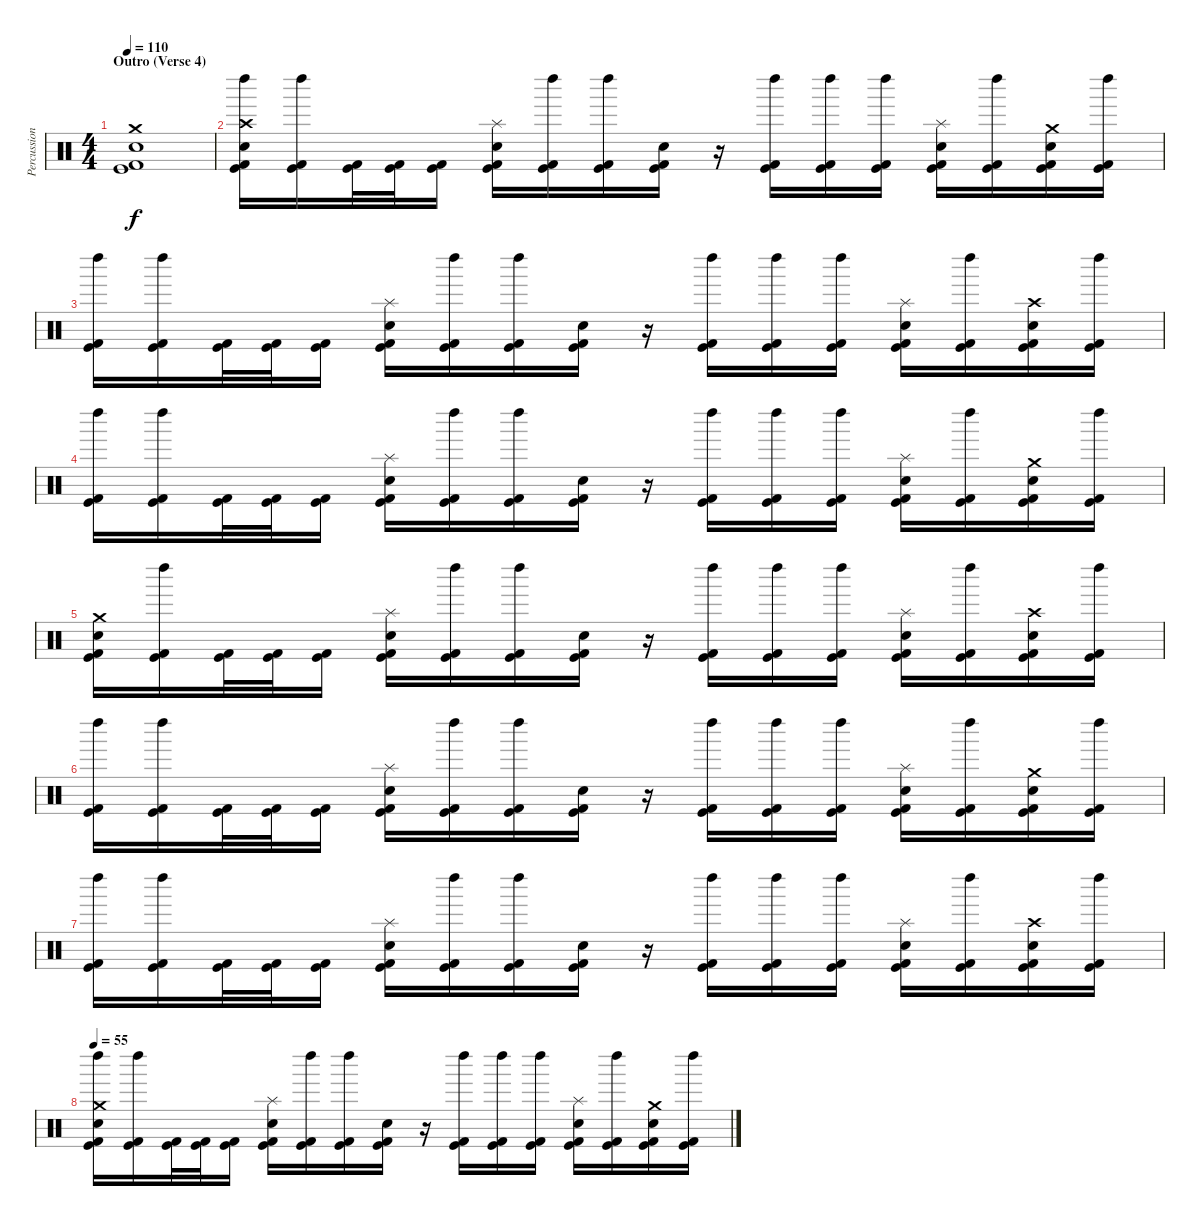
\track ("Percussions" "Percussion") {instrument percussion}
\staff {score}
\articulation defaults
\ts (4 4)
\section ("" "Outro (Verse 4)")
\tempo 110
\clef neutral
\ks c
("Kick (hit)" "Kick (hit) 2" "Electric Snare (hit)" "Crash medium (hit)").1{dy f} |
("Kick (hit)" "Kick (hit) 2" "Left Maraca (hit)" "Electric Snare (hit)" "Crash high (hit)").16 ("Kick (hit)" "Kick (hit) 2" "Left Maraca (hit)").16 ("Kick (hit)" "Kick (hit) 2").32 ("Kick (hit)" "Kick (hit) 2").32 ("Kick (hit)" "Kick (hit) 2").16 ("Kick (hit)" "Kick (hit) 2" "Electric Snare (hit)" "Splash (hit)").16 ("Kick (hit)" "Kick (hit) 2" "Left Maraca (hit)").16 ("Kick (hit)" "Kick (hit) 2" "Left Maraca (hit)").16 ("Kick (hit)" "Kick (hit) 2" "Electric Snare (hit)").16 r.16 ("Kick (hit)" "Kick (hit) 2" "Left Maraca (hit)").16 ("Kick (hit)" "Kick (hit) 2" "Left Maraca (hit)").16 ("Kick (hit)" "Kick (hit) 2" "Left Maraca (hit)").16 ("Kick (hit)" "Kick (hit) 2" "Electric Snare (hit)" "Splash (hit)").16 ("Kick (hit)" "Kick (hit) 2" "Left Maraca (hit)").16 ("Kick (hit)" "Kick (hit) 2" "Electric Snare (hit)" "Crash medium (hit)").16 ("Kick (hit)" "Kick (hit) 2" "Left Maraca (hit)").16 |
("Kick (hit)" "Kick (hit) 2" "Left Maraca (hit)").16 ("Kick (hit)" "Kick (hit) 2" "Left Maraca (hit)").16 ("Kick (hit)" "Kick (hit) 2").32 ("Kick (hit)" "Kick (hit) 2").32 ("Kick (hit)" "Kick (hit) 2").16 ("Kick (hit)" "Kick (hit) 2" "Electric Snare (hit)" "Splash (hit)").16 ("Kick (hit)" "Kick (hit) 2" "Left Maraca (hit)").16 ("Kick (hit)" "Kick (hit) 2" "Left Maraca (hit)").16 ("Kick (hit)" "Kick (hit) 2" "Electric Snare (hit)").16 r.16 ("Kick (hit)" "Kick (hit) 2" "Left Maraca (hit)").16 ("Kick (hit)" "Kick (hit) 2" "Left Maraca (hit)").16 ("Kick (hit)" "Kick (hit) 2" "Left Maraca (hit)").16 ("Kick (hit)" "Kick (hit) 2" "Electric Snare (hit)" "Splash (hit)").16 ("Kick (hit)" "Kick (hit) 2" "Left Maraca (hit)").16 ("Kick (hit)" "Kick (hit) 2" "Electric Snare (hit)" "Crash high (hit)").16 ("Kick (hit)" "Kick (hit) 2" "Left Maraca (hit)").16 |
("Kick (hit)" "Kick (hit) 2" "Left Maraca (hit)").16 ("Kick (hit)" "Kick (hit) 2" "Left Maraca (hit)").16 ("Kick (hit)" "Kick (hit) 2").32 ("Kick (hit)" "Kick (hit) 2").32 ("Kick (hit)" "Kick (hit) 2").16 ("Kick (hit)" "Kick (hit) 2" "Electric Snare (hit)" "Splash (hit)").16 ("Kick (hit)" "Kick (hit) 2" "Left Maraca (hit)").16 ("Kick (hit)" "Kick (hit) 2" "Left Maraca (hit)").16 ("Kick (hit)" "Kick (hit) 2" "Electric Snare (hit)").16 r.16 ("Kick (hit)" "Kick (hit) 2" "Left Maraca (hit)").16 ("Kick (hit)" "Kick (hit) 2" "Left Maraca (hit)").16 ("Kick (hit)" "Kick (hit) 2" "Left Maraca (hit)").16 ("Kick (hit)" "Kick (hit) 2" "Electric Snare (hit)" "Splash (hit)").16 ("Kick (hit)" "Kick (hit) 2" "Left Maraca (hit)").16 ("Kick (hit)" "Kick (hit) 2" "Electric Snare (hit)" "Crash medium (hit)").16 ("Kick (hit)" "Kick (hit) 2" "Left Maraca (hit)").16 |
("Kick (hit)" "Kick (hit) 2" "Electric Snare (hit)" "Crash medium (hit)").16 ("Kick (hit)" "Kick (hit) 2" "Left Maraca (hit)").16 ("Kick (hit)" "Kick (hit) 2").32 ("Kick (hit)" "Kick (hit) 2").32 ("Kick (hit)" "Kick (hit) 2").16 ("Kick (hit)" "Kick (hit) 2" "Electric Snare (hit)" "Splash (hit)").16 ("Kick (hit)" "Kick (hit) 2" "Left Maraca (hit)").16 ("Kick (hit)" "Kick (hit) 2" "Left Maraca (hit)").16 ("Kick (hit)" "Kick (hit) 2" "Electric Snare (hit)").16 r.16 ("Kick (hit)" "Kick (hit) 2" "Left Maraca (hit)").16 ("Kick (hit)" "Kick (hit) 2" "Left Maraca (hit)").16 ("Kick (hit)" "Kick (hit) 2" "Left Maraca (hit)").16 ("Kick (hit)" "Kick (hit) 2" "Electric Snare (hit)" "Splash (hit)").16 ("Kick (hit)" "Kick (hit) 2" "Left Maraca (hit)").16 ("Kick (hit)" "Kick (hit) 2" "Electric Snare (hit)" "Crash high (hit)").16 ("Kick (hit)" "Kick (hit) 2" "Left Maraca (hit)").16 |
("Kick (hit)" "Kick (hit) 2" "Left Maraca (hit)").16 ("Kick (hit)" "Kick (hit) 2" "Left Maraca (hit)").16 ("Kick (hit)" "Kick (hit) 2").32 ("Kick (hit)" "Kick (hit) 2").32 ("Kick (hit)" "Kick (hit) 2").16 ("Kick (hit)" "Kick (hit) 2" "Electric Snare (hit)" "Splash (hit)").16 ("Kick (hit)" "Kick (hit) 2" "Left Maraca (hit)").16 ("Kick (hit)" "Kick (hit) 2" "Left Maraca (hit)").16 ("Kick (hit)" "Kick (hit) 2" "Electric Snare (hit)").16 r.16 ("Kick (hit)" "Kick (hit) 2" "Left Maraca (hit)").16 ("Kick (hit)" "Kick (hit) 2" "Left Maraca (hit)").16 ("Kick (hit)" "Kick (hit) 2" "Left Maraca (hit)").16 ("Kick (hit)" "Kick (hit) 2" "Electric Snare (hit)" "Splash (hit)").16 ("Kick (hit)" "Kick (hit) 2" "Left Maraca (hit)").16 ("Kick (hit)" "Kick (hit) 2" "Electric Snare (hit)" "Crash medium (hit)").16 ("Kick (hit)" "Kick (hit) 2" "Left Maraca (hit)").16 |
("Kick (hit)" "Kick (hit) 2" "Left Maraca (hit)").16 ("Kick (hit)" "Kick (hit) 2" "Left Maraca (hit)").16 ("Kick (hit)" "Kick (hit) 2").32 ("Kick (hit)" "Kick (hit) 2").32 ("Kick (hit)" "Kick (hit) 2").16 ("Kick (hit)" "Kick (hit) 2" "Electric Snare (hit)" "Splash (hit)").16 ("Kick (hit)" "Kick (hit) 2" "Left Maraca (hit)").16 ("Kick (hit)" "Kick (hit) 2" "Left Maraca (hit)").16 ("Kick (hit)" "Kick (hit) 2" "Electric Snare (hit)").16 r.16 ("Kick (hit)" "Kick (hit) 2" "Left Maraca (hit)").16 ("Kick (hit)" "Kick (hit) 2" "Left Maraca (hit)").16 ("Kick (hit)" "Kick (hit) 2" "Left Maraca (hit)").16 ("Kick (hit)" "Kick (hit) 2" "Electric Snare (hit)" "Splash (hit)").16 ("Kick (hit)" "Kick (hit) 2" "Left Maraca (hit)").16 ("Kick (hit)" "Kick (hit) 2" "Electric Snare (hit)" "Crash high (hit)").16 ("Kick (hit)" "Kick (hit) 2" "Left Maraca (hit)").16 |
\tempo 55
("Kick (hit)" "Kick (hit) 2" "Left Maraca (hit)" "Electric Snare (hit)" "Crash medium (hit)").16 ("Kick (hit)" "Kick (hit) 2" "Left Maraca (hit)").16 ("Kick (hit)" "Kick (hit) 2").32 ("Kick (hit)" "Kick (hit) 2").32 ("Kick (hit)" "Kick (hit) 2").16 ("Kick (hit)" "Kick (hit) 2" "Electric Snare (hit)" "Splash (hit)").16 ("Kick (hit)" "Kick (hit) 2" "Left Maraca (hit)").16 ("Kick (hit)" "Kick (hit) 2" "Left Maraca (hit)").16 ("Kick (hit)" "Kick (hit) 2" "Electric Snare (hit)").16 r.16 ("Kick (hit)" "Kick (hit) 2" "Left Maraca (hit)").16 ("Kick (hit)" "Kick (hit) 2" "Left Maraca (hit)").16 ("Kick (hit)" "Kick (hit) 2" "Left Maraca (hit)").16 ("Kick (hit)" "Kick (hit) 2" "Electric Snare (hit)" "Splash (hit)").16 ("Kick (hit)" "Kick (hit) 2" "Left Maraca (hit)").16 ("Kick (hit)" "Kick (hit) 2" "Electric Snare (hit)" "Crash medium (hit)").16 ("Kick (hit)" "Kick (hit) 2" "Left Maraca (hit)").16
